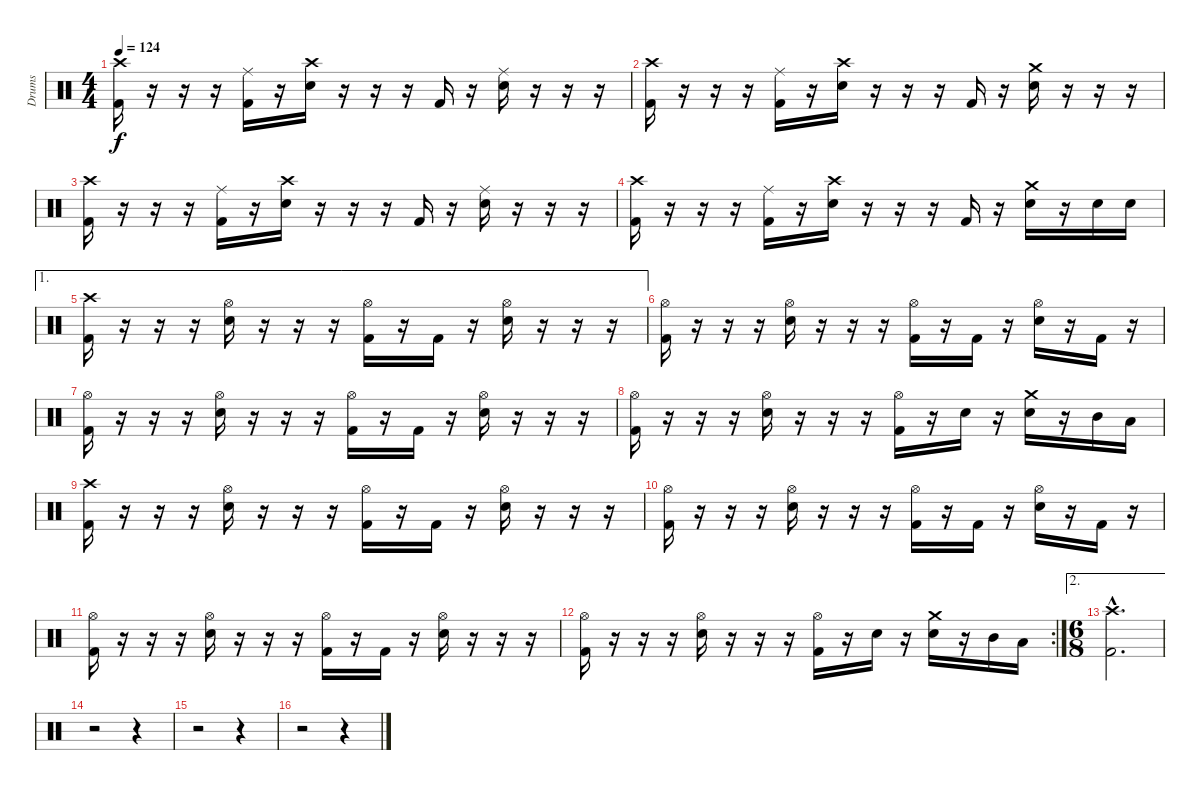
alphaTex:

\track ("Drums" "Drums") {instrument percussion}
\staff {score}
\articulation defaults
\ts (4 4)
\tempo 124
\clef neutral
\ks c
("Crash high (hit)" "Kick (hit) 2").16{dy f} r.16 r.16 r.16 ("Ride (middle)" "Kick (hit) 2").16 r.16 ("Crash high (hit)" "Snare (hit) 2").16 r.16 r.16 r.16 "Kick (hit) 2".16 r.16 ("Ride (middle)" "Snare (hit) 2").16 r.16 r.16 r.16 |
("Crash high (hit)" "Kick (hit) 2").16 r.16 r.16 r.16 ("Ride (middle)" "Kick (hit) 2").16 r.16 ("Crash high (hit)" "Snare (hit) 2").16 r.16 r.16 r.16 "Kick (hit) 2".16 r.16 ("Crash medium (hit)" "Snare (hit) 2").16 r.16 r.16 r.16 |
("Crash high (hit)" "Kick (hit) 2").16 r.16 r.16 r.16 ("Ride (middle)" "Kick (hit) 2").16 r.16 ("Crash high (hit)" "Snare (hit) 2").16 r.16 r.16 r.16 "Kick (hit) 2".16 r.16 ("Ride (middle)" "Snare (hit) 2").16 r.16 r.16 r.16 |
("Crash high (hit)" "Kick (hit) 2").16 r.16 r.16 r.16 ("Ride (middle)" "Kick (hit) 2").16 r.16 ("Crash high (hit)" "Snare (hit) 2").16 r.16 r.16 r.16 "Kick (hit) 2".16 r.16 ("Crash medium (hit)" "Snare (hit) 2").16 r.16 "Snare (hit) 2".16 "Snare (hit) 2".16 |
\ae 1
("Crash high (hit)" "Kick (hit) 2").16 r.16 r.16 r.16 ("Hi-Hat (open)" "Snare (hit) 2").16 r.16 r.16 r.16 ("Hi-Hat (open)" "Kick (hit) 2").16 r.16 "Kick (hit) 2".16 r.16 ("Hi-Hat (open)" "Snare (hit) 2").16 r.16 r.16 r.16 |
("Hi-Hat (open)" "Kick (hit) 2").16 r.16 r.16 r.16 ("Hi-Hat (open)" "Snare (hit) 2").16 r.16 r.16 r.16 ("Hi-Hat (open)" "Kick (hit) 2").16 r.16 "Kick (hit) 2".16 r.16 ("Hi-Hat (open)" "Snare (hit) 2").16 r.16 "Kick (hit) 2".16 r.16 |
("Hi-Hat (open)" "Kick (hit) 2").16 r.16 r.16 r.16 ("Hi-Hat (open)" "Snare (hit) 2").16 r.16 r.16 r.16 ("Hi-Hat (open)" "Kick (hit) 2").16 r.16 "Kick (hit) 2".16 r.16 ("Hi-Hat (open)" "Snare (hit) 2").16 r.16 r.16 r.16 |
("Hi-Hat (open)" "Kick (hit) 2").16 r.16 r.16 r.16 ("Hi-Hat (open)" "Snare (hit) 2").16 r.16 r.16 r.16 ("Hi-Hat (open)" "Kick (hit) 2").16 r.16 "Snare (hit) 2".16 r.16 ("Crash medium (hit)" "Snare (hit) 2").16 r.16 "Mid Tom (hit)".16 "Low Tom (hit)".16 |
("Crash high (hit)" "Kick (hit) 2").16 r.16 r.16 r.16 ("Hi-Hat (open)" "Snare (hit) 2").16 r.16 r.16 r.16 ("Hi-Hat (open)" "Kick (hit) 2").16 r.16 "Kick (hit) 2".16 r.16 ("Hi-Hat (open)" "Snare (hit) 2").16 r.16 r.16 r.16 |
("Hi-Hat (open)" "Kick (hit) 2").16 r.16 r.16 r.16 ("Hi-Hat (open)" "Snare (hit) 2").16 r.16 r.16 r.16 ("Hi-Hat (open)" "Kick (hit) 2").16 r.16 "Kick (hit) 2".16 r.16 ("Hi-Hat (open)" "Snare (hit) 2").16 r.16 "Kick (hit) 2".16 r.16 |
("Hi-Hat (open)" "Kick (hit) 2").16 r.16 r.16 r.16 ("Hi-Hat (open)" "Snare (hit) 2").16 r.16 r.16 r.16 ("Hi-Hat (open)" "Kick (hit) 2").16 r.16 "Kick (hit) 2".16 r.16 ("Hi-Hat (open)" "Snare (hit) 2").16 r.16 r.16 r.16 |
\rc 2
("Hi-Hat (open)" "Kick (hit) 2").16 r.16 r.16 r.16 ("Hi-Hat (open)" "Snare (hit) 2").16 r.16 r.16 r.16 ("Hi-Hat (open)" "Kick (hit) 2").16 r.16 "Snare (hit) 2".16 r.16 ("Crash medium (hit)" "Snare (hit) 2").16 r.16 "Mid Tom (hit)".16 "Low Tom (hit)".16 |
\ae 2
\ts (6 8)
("Crash high (hit)"{hac} "Kick (hit) 2"{hac}).2{d} |
r.2 r.4 |
r.2 r.4 |
r.2 r.4
